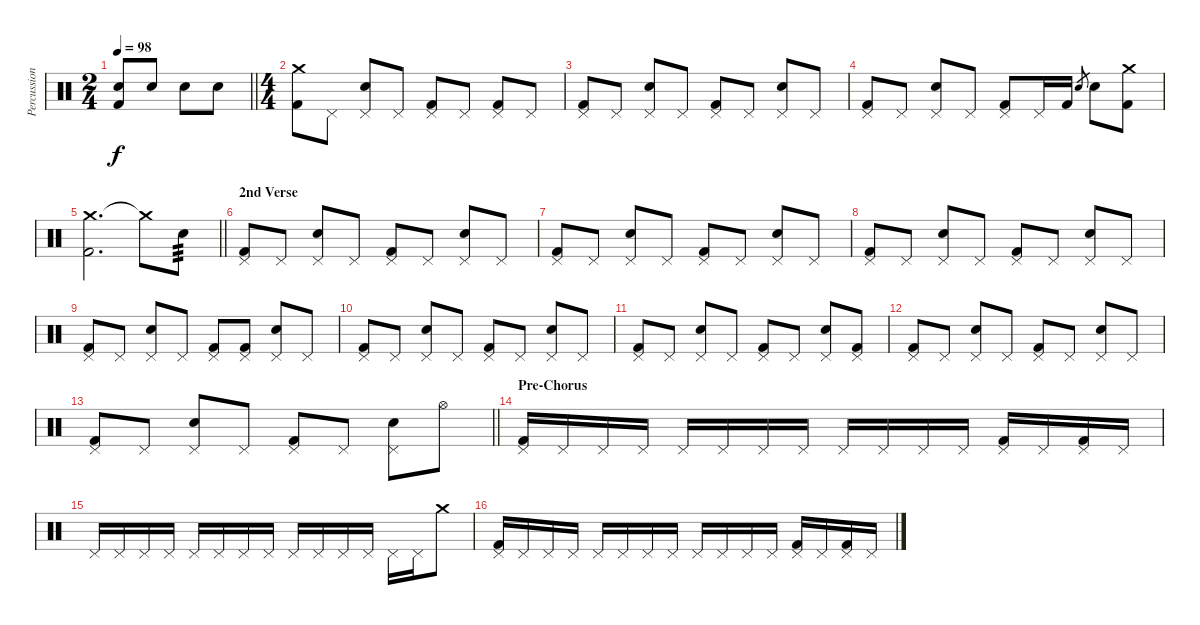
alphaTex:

\track ("Percussion" "Percussion") {instrument percussion}
\staff {score}
\articulation defaults
\ts (2 4)
\tempo 98
\clef neutral
\barLineRight lightlight
\ks c
("Snare (hit) 2" "Kick (hit) 2").8{dy f} "Snare (hit) 2".8 "Snare (hit) 2".8 "Snare (hit) 2".8 |
\ts (4 4)
("Crash medium (hit)" "Kick (hit) 2").8 "Pedal Hi-Hat (hit)".8 ("Pedal Hi-Hat (hit)" "Snare (hit) 2").8 "Pedal Hi-Hat (hit)".8 ("Pedal Hi-Hat (hit)" "Kick (hit) 2").8 "Pedal Hi-Hat (hit)".8 ("Pedal Hi-Hat (hit)" "Kick (hit) 2").8 "Pedal Hi-Hat (hit)".8 |
("Pedal Hi-Hat (hit)" "Kick (hit) 2").8 "Pedal Hi-Hat (hit)".8 ("Pedal Hi-Hat (hit)" "Snare (hit) 2").8 "Pedal Hi-Hat (hit)".8 ("Pedal Hi-Hat (hit)" "Kick (hit) 2").8 "Pedal Hi-Hat (hit)".8 ("Pedal Hi-Hat (hit)" "Snare (hit) 2").8 "Pedal Hi-Hat (hit)".8 |
("Pedal Hi-Hat (hit)" "Kick (hit) 2").8 "Pedal Hi-Hat (hit)".8 ("Pedal Hi-Hat (hit)" "Snare (hit) 2").8 "Pedal Hi-Hat (hit)".8 ("Pedal Hi-Hat (hit)" "Kick (hit) 2").8 "Pedal Hi-Hat (hit)".16 "Kick (hit) 2".16 "Snare (hit) 2".8{gr} "Snare (hit) 2".8 ("Crash medium (hit)" "Kick (hit) 2").8 |
\barLineRight lightlight
("Crash medium (hit)" "Kick (hit) 2").2{d} "Crash medium (hit)"{t}.8 "Snare (hit) 2".8{tp 3} |
\section ("" "2nd Verse")
("Pedal Hi-Hat (hit)" "Kick (hit) 2").8 "Pedal Hi-Hat (hit)".8 ("Pedal Hi-Hat (hit)" "Snare (hit) 2").8 "Pedal Hi-Hat (hit)".8 ("Pedal Hi-Hat (hit)" "Kick (hit) 2").8 "Pedal Hi-Hat (hit)".8 ("Pedal Hi-Hat (hit)" "Snare (hit) 2").8 "Pedal Hi-Hat (hit)".8 |
("Pedal Hi-Hat (hit)" "Kick (hit) 2").8 "Pedal Hi-Hat (hit)".8 ("Pedal Hi-Hat (hit)" "Snare (hit) 2").8 "Pedal Hi-Hat (hit)".8 ("Pedal Hi-Hat (hit)" "Kick (hit) 2").8 "Pedal Hi-Hat (hit)".8 ("Pedal Hi-Hat (hit)" "Snare (hit) 2").8 "Pedal Hi-Hat (hit)".8 |
("Pedal Hi-Hat (hit)" "Kick (hit) 2").8 "Pedal Hi-Hat (hit)".8 ("Pedal Hi-Hat (hit)" "Snare (hit) 2").8 "Pedal Hi-Hat (hit)".8 ("Pedal Hi-Hat (hit)" "Kick (hit) 2").8 "Pedal Hi-Hat (hit)".8 ("Pedal Hi-Hat (hit)" "Snare (hit) 2").8 "Pedal Hi-Hat (hit)".8 |
("Pedal Hi-Hat (hit)" "Kick (hit) 2").8 "Pedal Hi-Hat (hit)".8 ("Pedal Hi-Hat (hit)" "Snare (hit) 2").8 "Pedal Hi-Hat (hit)".8 ("Pedal Hi-Hat (hit)" "Kick (hit) 2").8 ("Pedal Hi-Hat (hit)" "Kick (hit) 2").8 ("Pedal Hi-Hat (hit)" "Snare (hit) 2").8 "Pedal Hi-Hat (hit)".8 |
("Pedal Hi-Hat (hit)" "Kick (hit) 2").8 "Pedal Hi-Hat (hit)".8 ("Pedal Hi-Hat (hit)" "Snare (hit) 2").8 "Pedal Hi-Hat (hit)".8 ("Pedal Hi-Hat (hit)" "Kick (hit) 2").8 "Pedal Hi-Hat (hit)".8 ("Pedal Hi-Hat (hit)" "Snare (hit) 2").8 "Pedal Hi-Hat (hit)".8 |
("Pedal Hi-Hat (hit)" "Kick (hit) 2").8 "Pedal Hi-Hat (hit)".8 ("Pedal Hi-Hat (hit)" "Snare (hit) 2").8 "Pedal Hi-Hat (hit)".8 ("Pedal Hi-Hat (hit)" "Kick (hit) 2").8 "Pedal Hi-Hat (hit)".8 ("Pedal Hi-Hat (hit)" "Snare (hit) 2").8 ("Pedal Hi-Hat (hit)" "Kick (hit) 2").8 |
("Pedal Hi-Hat (hit)" "Kick (hit) 2").8 "Pedal Hi-Hat (hit)".8 ("Pedal Hi-Hat (hit)" "Snare (hit) 2").8 "Pedal Hi-Hat (hit)".8 ("Pedal Hi-Hat (hit)" "Kick (hit) 2").8 "Pedal Hi-Hat (hit)".8 ("Pedal Hi-Hat (hit)" "Snare (hit) 2").8 "Pedal Hi-Hat (hit)".8 |
\barLineRight lightlight
("Pedal Hi-Hat (hit)" "Kick (hit) 2").8 "Pedal Hi-Hat (hit)".8 ("Pedal Hi-Hat (hit)" "Snare (hit) 2").8 "Pedal Hi-Hat (hit)".8 ("Pedal Hi-Hat (hit)" "Kick (hit) 2").8 "Pedal Hi-Hat (hit)".8 ("Pedal Hi-Hat (hit)" "Snare (hit) 2").8 "Hi-Hat (open)".8 |
\section ("" "Pre-Chorus")
("Pedal Hi-Hat (hit)" "Kick (hit) 2").16 "Pedal Hi-Hat (hit)".16 "Pedal Hi-Hat (hit)".16 "Pedal Hi-Hat (hit)".16 "Pedal Hi-Hat (hit)".16 "Pedal Hi-Hat (hit)".16 "Pedal Hi-Hat (hit)".16 "Pedal Hi-Hat (hit)".16 "Pedal Hi-Hat (hit)".16 "Pedal Hi-Hat (hit)".16 "Pedal Hi-Hat (hit)".16 "Pedal Hi-Hat (hit)".16 ("Pedal Hi-Hat (hit)" "Kick (hit) 2").16 "Pedal Hi-Hat (hit)".16 ("Pedal Hi-Hat (hit)" "Kick (hit) 2").16 "Pedal Hi-Hat (hit)".16 |
"Pedal Hi-Hat (hit)".16 "Pedal Hi-Hat (hit)".16 "Pedal Hi-Hat (hit)".16 "Pedal Hi-Hat (hit)".16 "Pedal Hi-Hat (hit)".16 "Pedal Hi-Hat (hit)".16 "Pedal Hi-Hat (hit)".16 "Pedal Hi-Hat (hit)".16 "Pedal Hi-Hat (hit)".16 "Pedal Hi-Hat (hit)".16 "Pedal Hi-Hat (hit)".16 "Pedal Hi-Hat (hit)".16 "Pedal Hi-Hat (hit)".16 "Pedal Hi-Hat (hit)".16 "Crash medium (hit)".8 |
("Pedal Hi-Hat (hit)" "Kick (hit) 2").16 "Pedal Hi-Hat (hit)".16 "Pedal Hi-Hat (hit)".16 "Pedal Hi-Hat (hit)".16 "Pedal Hi-Hat (hit)".16 "Pedal Hi-Hat (hit)".16 "Pedal Hi-Hat (hit)".16 "Pedal Hi-Hat (hit)".16 "Pedal Hi-Hat (hit)".16 "Pedal Hi-Hat (hit)".16 "Pedal Hi-Hat (hit)".16 "Pedal Hi-Hat (hit)".16 ("Pedal Hi-Hat (hit)" "Kick (hit) 2").16 "Pedal Hi-Hat (hit)".16 ("Pedal Hi-Hat (hit)" "Kick (hit) 2").16 "Pedal Hi-Hat (hit)".16
